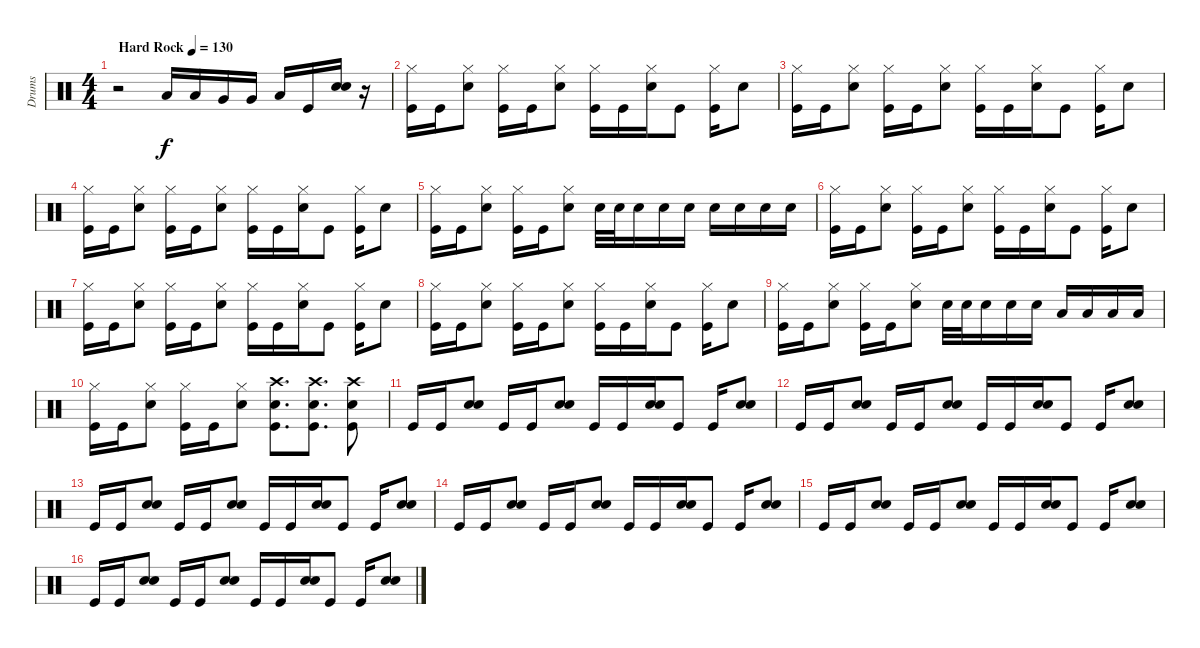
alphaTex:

\track ("Drums" "Drums") {instrument percussion}
\staff {score}
\articulation defaults
\ts (4 4)
\tempo (130 "Hard Rock")
\clef neutral
\ks c
r.2{dy f} "Low Tom (hit)".16 "Low Tom (hit)".16 "Very Low Tom (hit)".16 "Very Low Tom (hit)".16 "Low Floor Tom (hit)".16 "Kick (hit)".16 ("Snare (hit) 2" "Snare (hit) 2").16 r.16 |
("Hi-Hat (closed)" "Kick (hit)").16 "Kick (hit)".16 ("Hi-Hat (closed)" "Snare (hit) 2").8 ("Hi-Hat (closed)" "Kick (hit)").16 "Kick (hit)".16 ("Hi-Hat (closed)" "Snare (hit) 2").8 ("Hi-Hat (closed)" "Kick (hit)").16 "Kick (hit)".16 ("Hi-Hat (closed)" "Snare (hit) 2").16 "Kick (hit)".8 ("Hi-Hat (closed)" "Kick (hit)").16 "Snare (hit) 2".8 |
("Hi-Hat (closed)" "Kick (hit)").16 "Kick (hit)".16 ("Hi-Hat (closed)" "Snare (hit) 2").8 ("Hi-Hat (closed)" "Kick (hit)").16 "Kick (hit)".16 ("Hi-Hat (closed)" "Snare (hit) 2").8 ("Hi-Hat (closed)" "Kick (hit)").16 "Kick (hit)".16 ("Hi-Hat (closed)" "Snare (hit) 2").16 "Kick (hit)".8 ("Hi-Hat (closed)" "Kick (hit)").16 "Snare (hit) 2".8 |
("Hi-Hat (closed)" "Kick (hit)").16 "Kick (hit)".16 ("Hi-Hat (closed)" "Snare (hit) 2").8 ("Hi-Hat (closed)" "Kick (hit)").16 "Kick (hit)".16 ("Hi-Hat (closed)" "Snare (hit) 2").8 ("Hi-Hat (closed)" "Kick (hit)").16 "Kick (hit)".16 ("Hi-Hat (closed)" "Snare (hit) 2").16 "Kick (hit)".8 ("Hi-Hat (closed)" "Kick (hit)").16 "Snare (hit) 2".8 |
("Hi-Hat (closed)" "Kick (hit)").16 "Kick (hit)".16 ("Hi-Hat (closed)" "Snare (hit) 2").8 ("Hi-Hat (closed)" "Kick (hit)").16 "Kick (hit)".16 ("Hi-Hat (closed)" "Snare (hit) 2").8 "Snare (hit) 2".32 "Snare (hit) 2".32 "Snare (hit) 2".16 "Snare (hit) 2".16 "Snare (hit) 2".16 "Snare (hit) 2".16 "Snare (hit) 2".16 "Snare (hit) 2".16 "Snare (hit) 2".16 |
("Hi-Hat (closed)" "Kick (hit)").16 "Kick (hit)".16 ("Hi-Hat (closed)" "Snare (hit) 2").8 ("Hi-Hat (closed)" "Kick (hit)").16 "Kick (hit)".16 ("Hi-Hat (closed)" "Snare (hit) 2").8 ("Hi-Hat (closed)" "Kick (hit)").16 "Kick (hit)".16 ("Hi-Hat (closed)" "Snare (hit) 2").16 "Kick (hit)".8 ("Hi-Hat (closed)" "Kick (hit)").16 "Snare (hit) 2".8 |
("Hi-Hat (closed)" "Kick (hit)").16 "Kick (hit)".16 ("Hi-Hat (closed)" "Snare (hit) 2").8 ("Hi-Hat (closed)" "Kick (hit)").16 "Kick (hit)".16 ("Hi-Hat (closed)" "Snare (hit) 2").8 ("Hi-Hat (closed)" "Kick (hit)").16 "Kick (hit)".16 ("Hi-Hat (closed)" "Snare (hit) 2").16 "Kick (hit)".8 ("Hi-Hat (closed)" "Kick (hit)").16 "Snare (hit) 2".8 |
("Hi-Hat (closed)" "Kick (hit)").16 "Kick (hit)".16 ("Hi-Hat (closed)" "Snare (hit) 2").8 ("Hi-Hat (closed)" "Kick (hit)").16 "Kick (hit)".16 ("Hi-Hat (closed)" "Snare (hit) 2").8 ("Hi-Hat (closed)" "Kick (hit)").16 "Kick (hit)".16 ("Hi-Hat (closed)" "Snare (hit) 2").16 "Kick (hit)".8 ("Hi-Hat (closed)" "Kick (hit)").16 "Snare (hit) 2".8 |
("Hi-Hat (closed)" "Kick (hit)").16 "Kick (hit)".16 ("Hi-Hat (closed)" "Snare (hit) 2").8 ("Hi-Hat (closed)" "Kick (hit)").16 "Kick (hit)".16 ("Hi-Hat (closed)" "Snare (hit) 2").8 "Snare (hit) 2".32 "Snare (hit) 2".32 "Snare (hit) 2".16 "Snare (hit) 2".16 "Snare (hit) 2".16 "Low Tom (hit)".16 "Low Tom (hit)".16 "Low Floor Tom (hit)".16 "Low Floor Tom (hit)".16 |
("Hi-Hat (closed)" "Kick (hit)").16 "Kick (hit)".16 ("Hi-Hat (closed)" "Snare (hit) 2").8 ("Hi-Hat (closed)" "Kick (hit)").16 "Kick (hit)".16 ("Hi-Hat (closed)" "Snare (hit) 2").8 ("Crash high (hit)" "Snare (hit) 2" "Kick (hit)").8{d} ("Crash high (hit)" "Snare (hit) 2" "Kick (hit)").8{d} ("Crash high (hit)" "Snare (hit) 2" "Kick (hit)").8 |
"Kick (hit)".16 "Kick (hit)".16 ("Snare (hit) 2" "Snare (hit) 2").8 "Kick (hit)".16 "Kick (hit)".16 ("Snare (hit) 2" "Snare (hit) 2").8 "Kick (hit)".16 "Kick (hit)".16 ("Snare (hit) 2" "Snare (hit) 2").16 "Kick (hit)".8 "Kick (hit)".16 ("Snare (hit) 2" "Snare (hit) 2").8 |
"Kick (hit)".16 "Kick (hit)".16 ("Snare (hit) 2" "Snare (hit) 2").8 "Kick (hit)".16 "Kick (hit)".16 ("Snare (hit) 2" "Snare (hit) 2").8 "Kick (hit)".16 "Kick (hit)".16 ("Snare (hit) 2" "Snare (hit) 2").16 "Kick (hit)".8 "Kick (hit)".16 ("Snare (hit) 2" "Snare (hit) 2").8 |
"Kick (hit)".16 "Kick (hit)".16 ("Snare (hit) 2" "Snare (hit) 2").8 "Kick (hit)".16 "Kick (hit)".16 ("Snare (hit) 2" "Snare (hit) 2").8 "Kick (hit)".16 "Kick (hit)".16 ("Snare (hit) 2" "Snare (hit) 2").16 "Kick (hit)".8 "Kick (hit)".16 ("Snare (hit) 2" "Snare (hit) 2").8 |
"Kick (hit)".16 "Kick (hit)".16 ("Snare (hit) 2" "Snare (hit) 2").8 "Kick (hit)".16 "Kick (hit)".16 ("Snare (hit) 2" "Snare (hit) 2").8 "Kick (hit)".16 "Kick (hit)".16 ("Snare (hit) 2" "Snare (hit) 2").16 "Kick (hit)".8 "Kick (hit)".16 ("Snare (hit) 2" "Snare (hit) 2").8 |
"Kick (hit)".16 "Kick (hit)".16 ("Snare (hit) 2" "Snare (hit) 2").8 "Kick (hit)".16 "Kick (hit)".16 ("Snare (hit) 2" "Snare (hit) 2").8 "Kick (hit)".16 "Kick (hit)".16 ("Snare (hit) 2" "Snare (hit) 2").16 "Kick (hit)".8 "Kick (hit)".16 ("Snare (hit) 2" "Snare (hit) 2").8 |
"Kick (hit)".16 "Kick (hit)".16 ("Snare (hit) 2" "Snare (hit) 2").8 "Kick (hit)".16 "Kick (hit)".16 ("Snare (hit) 2" "Snare (hit) 2").8 "Kick (hit)".16 "Kick (hit)".16 ("Snare (hit) 2" "Snare (hit) 2").16 "Kick (hit)".8 "Kick (hit)".16 ("Snare (hit) 2" "Snare (hit) 2").8
